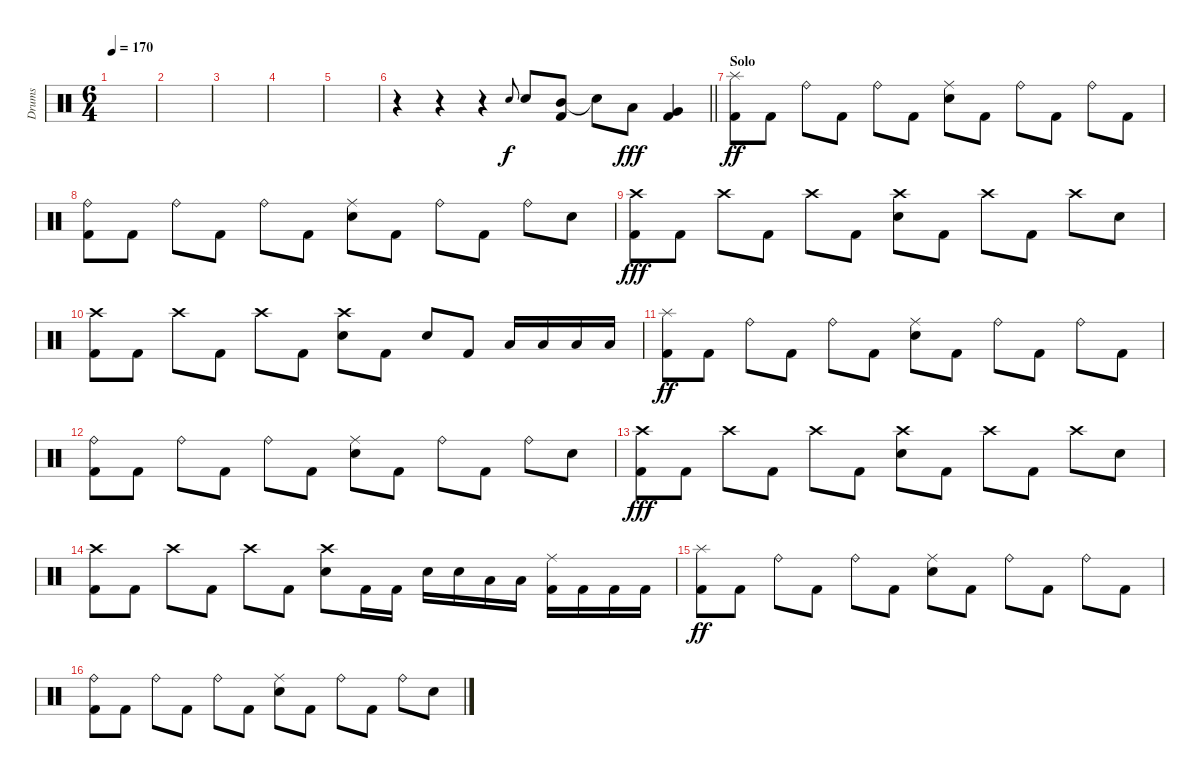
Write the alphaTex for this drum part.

\track ("Drums" "Drums") {instrument percussion}
\staff {score}
\articulation defaults
\ts (6 4)
\tempo 170
\clef neutral
\ks c
|
|
|
|
|
\barLineRight lightlight
r.4 r.4 r.4 "Snare (hit) 2".8{gr onbeat} "Snare (hit) 2".8 ("Mid Tom (hit)" "Kick (hit) 2").8 "Snare (hit)"{t}.8{dy f} "Low Tom (hit)".8{dy fff} ("Very Low Tom (hit)" "Kick (hit) 2").4 |
\section ("" "Solo")
("Splash (hit)" "Kick (hit) 2").8{dy ff} "Kick (hit) 2".8 "Ride (bell)".8 "Kick (hit) 2".8 "Ride (bell)".8 "Kick (hit) 2".8 ("Ride (middle)" "Snare (hit) 2").8 "Kick (hit) 2".8 "Ride (bell)".8 "Kick (hit) 2".8 "Ride (bell)".8 "Kick (hit) 2".8 |
("Ride (bell)" "Kick (hit) 2").8 "Kick (hit) 2".8 "Ride (bell)".8 "Kick (hit) 2".8 "Ride (bell)".8 "Kick (hit) 2".8 ("Ride (middle)" "Snare (hit) 2").8 "Kick (hit) 2".8 "Ride (bell)".8 "Kick (hit) 2".8 "Ride (bell)".8 "Snare (hit) 2".8 |
("Crash high (hit)" "Kick (hit) 2").8{dy fff} "Kick (hit) 2".8 "Crash high (hit)".8 "Kick (hit) 2".8 "Crash high (hit)".8 "Kick (hit) 2".8 ("Crash high (hit)" "Snare (hit) 2").8 "Kick (hit) 2".8 "Crash high (hit)".8 "Kick (hit) 2".8 "Crash high (hit)".8 "Snare (hit) 2".8 |
("Crash high (hit)" "Kick (hit) 2").8 "Kick (hit) 2".8 "Crash high (hit)".8 "Kick (hit) 2".8 "Crash high (hit)".8 "Kick (hit) 2".8 ("Crash high (hit)" "Snare (hit) 2").8 "Kick (hit) 2".8 "Snare (hit) 2".8 "Kick (hit) 2".8 "Low Tom (hit)".16 "Low Tom (hit)".16 "Low Tom (hit)".16 "Low Tom (hit)".16 |
("Splash (hit)" "Kick (hit) 2").8{dy ff} "Kick (hit) 2".8 "Ride (bell)".8 "Kick (hit) 2".8 "Ride (bell)".8 "Kick (hit) 2".8 ("Ride (middle)" "Snare (hit) 2").8 "Kick (hit) 2".8 "Ride (bell)".8 "Kick (hit) 2".8 "Ride (bell)".8 "Kick (hit) 2".8 |
("Ride (bell)" "Kick (hit) 2").8 "Kick (hit) 2".8 "Ride (bell)".8 "Kick (hit) 2".8 "Ride (bell)".8 "Kick (hit) 2".8 ("Ride (middle)" "Snare (hit) 2").8 "Kick (hit) 2".8 "Ride (bell)".8 "Kick (hit) 2".8 "Ride (bell)".8 "Snare (hit) 2".8 |
("Crash high (hit)" "Kick (hit) 2").8{dy fff} "Kick (hit) 2".8 "Crash high (hit)".8 "Kick (hit) 2".8 "Crash high (hit)".8 "Kick (hit) 2".8 ("Crash high (hit)" "Snare (hit) 2").8 "Kick (hit) 2".8 "Crash high (hit)".8 "Kick (hit) 2".8 "Crash high (hit)".8 "Snare (hit) 2".8 |
("Crash high (hit)" "Kick (hit) 2").8 "Kick (hit) 2".8 "Crash high (hit)".8 "Kick (hit) 2".8 "Crash high (hit)".8 "Kick (hit) 2".8 ("Crash high (hit)" "Snare (hit) 2").8 "Kick (hit) 2".16 "Kick (hit) 2".16 "Snare (hit) 2".16 "Snare (hit) 2".16 "Low Tom (hit)".16 "Low Tom (hit)".16 ("Ride (middle)" "Kick (hit) 2").16 "Kick (hit) 2".16 "Kick (hit) 2".16 "Kick (hit) 2".16 |
("Splash (hit)" "Kick (hit) 2").8{dy ff} "Kick (hit) 2".8 "Ride (bell)".8 "Kick (hit) 2".8 "Ride (bell)".8 "Kick (hit) 2".8 ("Ride (middle)" "Snare (hit) 2").8 "Kick (hit) 2".8 "Ride (bell)".8 "Kick (hit) 2".8 "Ride (bell)".8 "Kick (hit) 2".8 |
("Ride (bell)" "Kick (hit) 2").8 "Kick (hit) 2".8 "Ride (bell)".8 "Kick (hit) 2".8 "Ride (bell)".8 "Kick (hit) 2".8 ("Ride (middle)" "Snare (hit) 2").8 "Kick (hit) 2".8 "Ride (bell)".8 "Kick (hit) 2".8 "Ride (bell)".8 "Snare (hit) 2".8
